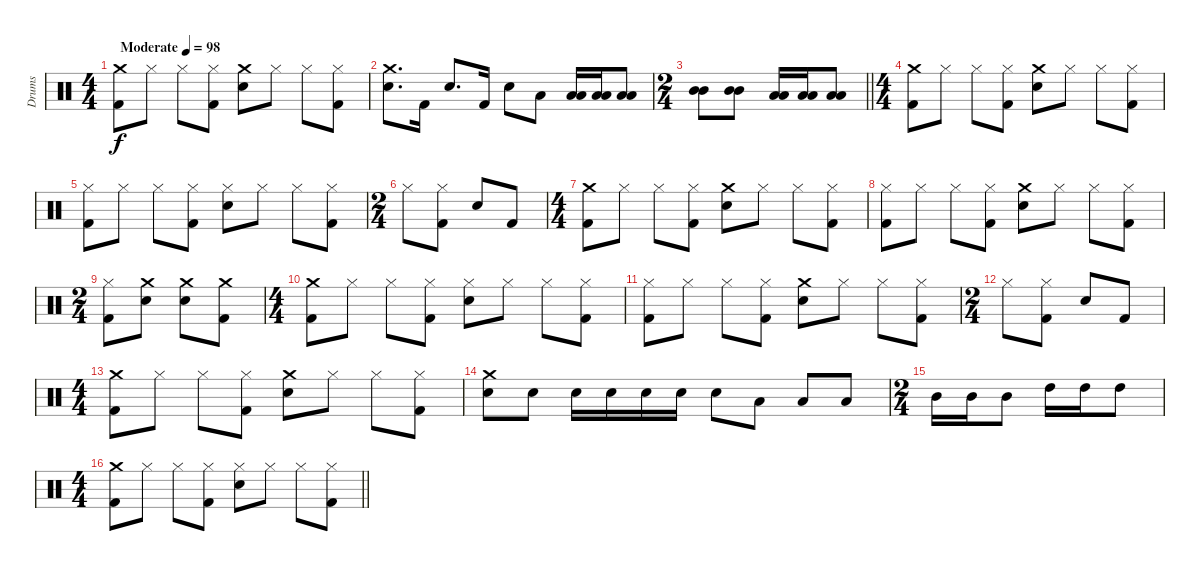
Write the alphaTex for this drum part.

\track ("Drums" "Drums") {instrument percussion}
\staff {score}
\articulation defaults
\ts (4 4)
\tempo (98 "Moderate")
\clef neutral
\ks c
("Crash medium (hit)" "Kick (hit) 2").8{dy f} "Hi-Hat (closed)".8 "Hi-Hat (closed)".8 ("Hi-Hat (closed)" "Kick (hit) 2").8 ("Crash medium (hit)" "Snare (hit) 2").8 "Hi-Hat (closed)".8 "Hi-Hat (closed)".8 ("Hi-Hat (closed)" "Kick (hit) 2").8 |
("Snare (hit) 2" "Crash medium (hit)").8{d} "Kick (hit) 2".16 "Snare (hit) 2".8{d} "Kick (hit) 2".16 "Snare (hit) 2".8 "Low Tom (hit)".8 ("Low Tom (hit)" "Low Tom (hit)").16 ("Low Tom (hit)" "Low Tom (hit)").16 ("Low Tom (hit)" "Low Tom (hit)").8 |
\ts (2 4)
\barLineRight lightlight
("Mid Tom (hit)" "Mid Tom (hit)").8 ("Mid Tom (hit)" "Mid Tom (hit)").8 ("Low Tom (hit)" "Low Tom (hit)").16 ("Low Tom (hit)" "Low Tom (hit)").16 ("Low Tom (hit)" "Low Tom (hit)").8 |
\ts (4 4)
("Crash medium (hit)" "Kick (hit) 2").8 "Hi-Hat (closed)".8 "Hi-Hat (closed)".8 ("Hi-Hat (closed)" "Kick (hit) 2").8 ("Crash medium (hit)" "Snare (hit) 2").8 "Hi-Hat (closed)".8 "Hi-Hat (closed)".8 ("Hi-Hat (closed)" "Kick (hit) 2").8 |
("Hi-Hat (closed)" "Kick (hit) 2").8 "Hi-Hat (closed)".8 "Hi-Hat (closed)".8 ("Hi-Hat (closed)" "Kick (hit) 2").8 ("Hi-Hat (closed)" "Snare (hit) 2").8 "Hi-Hat (closed)".8 "Hi-Hat (closed)".8 ("Hi-Hat (closed)" "Kick (hit) 2").8 |
\ts (2 4)
"Hi-Hat (closed)".8 ("Kick (hit) 2" "Hi-Hat (closed)").8 "Snare (hit) 2".8 "Kick (hit) 2".8 |
\ts (4 4)
("Crash medium (hit)" "Kick (hit) 2").8 "Hi-Hat (closed)".8 "Hi-Hat (closed)".8 ("Hi-Hat (closed)" "Kick (hit) 2").8 ("Crash medium (hit)" "Snare (hit) 2").8 "Hi-Hat (closed)".8 "Hi-Hat (closed)".8 ("Hi-Hat (closed)" "Kick (hit) 2").8 |
("Hi-Hat (closed)" "Kick (hit) 2").8 "Hi-Hat (closed)".8 "Hi-Hat (closed)".8 ("Hi-Hat (closed)" "Kick (hit) 2").8 ("Crash medium (hit)" "Snare (hit) 2").8 "Hi-Hat (closed)".8 "Hi-Hat (closed)".8 ("Hi-Hat (closed)" "Kick (hit) 2").8 |
\ts (2 4)
("Hi-Hat (closed)" "Kick (hit) 2").8 ("Crash medium (hit)" "Snare (hit) 2").8 ("Crash medium (hit)" "Snare (hit) 2").8 ("Crash medium (hit)" "Kick (hit) 2").8 |
\ts (4 4)
("Kick (hit) 2" "Crash medium (hit)").8 "Hi-Hat (closed)".8 "Hi-Hat (closed)".8 ("Kick (hit) 2" "Hi-Hat (closed)").8 ("Snare (hit) 2" "Hi-Hat (closed)").8 "Hi-Hat (closed)".8 "Hi-Hat (closed)".8 ("Kick (hit) 2" "Hi-Hat (closed)").8 |
("Hi-Hat (closed)" "Kick (hit) 2").8 "Hi-Hat (closed)".8 "Hi-Hat (closed)".8 ("Kick (hit) 2" "Hi-Hat (closed)").8 ("Crash medium (hit)" "Snare (hit) 2").8 "Hi-Hat (closed)".8 "Hi-Hat (closed)".8 ("Kick (hit) 2" "Hi-Hat (closed)").8 |
\ts (2 4)
"Hi-Hat (closed)".8 ("Kick (hit) 2" "Hi-Hat (closed)").8 "Snare (hit) 2".8 "Kick (hit) 2".8 |
\ts (4 4)
("Crash medium (hit)" "Kick (hit) 2").8 "Hi-Hat (closed)".8 "Hi-Hat (closed)".8 ("Hi-Hat (closed)" "Kick (hit) 2").8 ("Crash medium (hit)" "Snare (hit) 2").8 "Hi-Hat (closed)".8 "Hi-Hat (closed)".8 ("Hi-Hat (closed)" "Kick (hit) 2").8 |
("Snare (hit) 2" "Crash medium (hit)").8 "Snare (hit) 2".8 "Snare (hit) 2".16 "Snare (hit) 2".16 "Snare (hit) 2".16 "Snare (hit) 2".16 "Snare (hit) 2".8 "Low Tom (hit)".8 "Low Tom (hit)".8 "Low Tom (hit)".8 |
\ts (2 4)
"Mid Tom (hit)".16 "Mid Tom (hit)".16 "Mid Tom (hit)".8 "High Tom (hit)".16 "High Tom (hit)".16 "High Tom (hit)".8 |
\ts (4 4)
\barLineRight lightlight
("Kick (hit) 2" "Crash medium (hit)").8 "Hi-Hat (closed)".8 "Hi-Hat (closed)".8 ("Kick (hit) 2" "Hi-Hat (closed)").8 ("Snare (hit) 2" "Hi-Hat (closed)").8 "Hi-Hat (closed)".8 "Hi-Hat (closed)".8 ("Kick (hit) 2" "Hi-Hat (closed)").8
